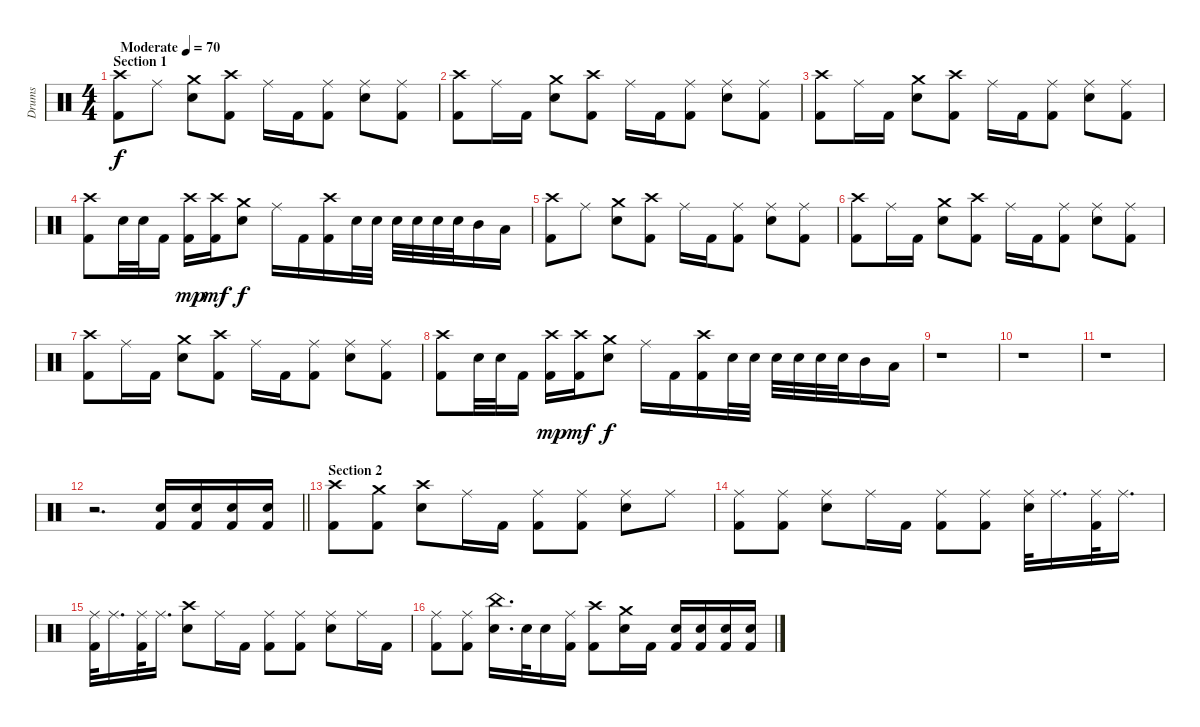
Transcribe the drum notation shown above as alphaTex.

\track ("Drums" "Drums") {instrument percussion}
\staff {score}
\articulation defaults
\ts (4 4)
\section ("" "Section 1")
\tempo (70 "Moderate")
\clef neutral
\ks c
("Crash high (hit)" "Kick (hit) 2").8{dy f} "Ride (middle)".8 ("Crash medium (hit)" "Electric Snare (hit)").8 ("Crash high (hit)" "Kick (hit) 2").8 "Ride (middle)".16 "Kick (hit) 2".16 ("Ride (middle)" "Kick (hit) 2").8 ("Ride (middle)" "Electric Snare (hit)").8 ("Ride (middle)" "Kick (hit) 2").8 |
("Crash high (hit)" "Kick (hit) 2").8 "Ride (middle)".16 "Kick (hit) 2".16 ("Crash medium (hit)" "Electric Snare (hit)").8 ("Crash high (hit)" "Kick (hit) 2").8 "Ride (middle)".16 "Kick (hit) 2".16 ("Ride (middle)" "Kick (hit) 2").8 ("Ride (middle)" "Electric Snare (hit)").8 ("Ride (middle)" "Kick (hit) 2").8 |
("Crash high (hit)" "Kick (hit) 2").8 "Ride (middle)".16 "Kick (hit) 2".16 ("Crash medium (hit)" "Electric Snare (hit)").8 ("Crash high (hit)" "Kick (hit) 2").8 "Ride (middle)".16 "Kick (hit) 2".16 ("Ride (middle)" "Kick (hit) 2").8 ("Ride (middle)" "Electric Snare (hit)").8 ("Ride (middle)" "Kick (hit) 2").8 |
("Crash high (hit)" "Kick (hit) 2").8 "Electric Snare (hit)".32 "Electric Snare (hit)".32 "Kick (hit) 2".16 ("Crash high (hit)" "Kick (hit) 2").16{dy mp} ("Crash high (hit)" "Kick (hit) 2").16{dy mf} ("Crash medium (hit)" "Electric Snare (hit)").8{dy f} "Ride (middle)".16 "Kick (hit) 2".16 ("Crash high (hit)" "Kick (hit) 2").16 "Electric Snare (hit)".32 "Electric Snare (hit)".32 "Electric Snare (hit)".32 "Electric Snare (hit)".32 "Electric Snare (hit)".32 "Electric Snare (hit)".32 "Mid Tom (hit)".16 "Low Tom (hit)".16 |
("Crash high (hit)" "Kick (hit) 2").8 "Ride (middle)".8 ("Crash medium (hit)" "Electric Snare (hit)").8 ("Crash high (hit)" "Kick (hit) 2").8 "Ride (middle)".16 "Kick (hit) 2".16 ("Ride (middle)" "Kick (hit) 2").8 ("Ride (middle)" "Electric Snare (hit)").8 ("Ride (middle)" "Kick (hit) 2").8 |
("Crash high (hit)" "Kick (hit) 2").8 "Ride (middle)".16 "Kick (hit) 2".16 ("Crash medium (hit)" "Electric Snare (hit)").8 ("Crash high (hit)" "Kick (hit) 2").8 "Ride (middle)".16 "Kick (hit) 2".16 ("Ride (middle)" "Kick (hit) 2").8 ("Ride (middle)" "Electric Snare (hit)").8 ("Ride (middle)" "Kick (hit) 2").8 |
("Crash high (hit)" "Kick (hit) 2").8 "Ride (middle)".16 "Kick (hit) 2".16 ("Crash medium (hit)" "Electric Snare (hit)").8 ("Crash high (hit)" "Kick (hit) 2").8 "Ride (middle)".16 "Kick (hit) 2".16 ("Ride (middle)" "Kick (hit) 2").8 ("Ride (middle)" "Electric Snare (hit)").8 ("Ride (middle)" "Kick (hit) 2").8 |
("Crash high (hit)" "Kick (hit) 2").8 "Electric Snare (hit)".32 "Electric Snare (hit)".32 "Kick (hit) 2".16 ("Crash high (hit)" "Kick (hit) 2").16{dy mp} ("Crash high (hit)" "Kick (hit) 2").16{dy mf} ("Crash medium (hit)" "Electric Snare (hit)").8{dy f} "Ride (middle)".16 "Kick (hit) 2".16 ("Crash high (hit)" "Kick (hit) 2").16 "Electric Snare (hit)".32 "Electric Snare (hit)".32 "Electric Snare (hit)".32 "Electric Snare (hit)".32 "Electric Snare (hit)".32 "Electric Snare (hit)".32 "Mid Tom (hit)".16 "Low Tom (hit)".16 |
r.1 |
r.1 |
r.1 |
\barLineRight lightlight
r.2{d} ("Electric Snare (hit)" "Kick (hit) 2").16 ("Electric Snare (hit)" "Kick (hit) 2").16 ("Electric Snare (hit)" "Kick (hit) 2").16 ("Electric Snare (hit)" "Kick (hit) 2").16 |
\section ("" "Section 2")
("Crash high (hit)" "Kick (hit) 2").8 ("Crash medium (hit)" "Kick (hit) 2").8 ("Crash high (hit)" "Electric Snare (hit)").8 "Ride (middle)".16 "Kick (hit) 2".16 ("Ride (middle)" "Kick (hit) 2").8 ("Ride (middle)" "Kick (hit) 2").8 ("Ride (middle)" "Electric Snare (hit)").8 "Ride (middle)".8 |
("Ride (middle)" "Kick (hit) 2").8 ("Ride (middle)" "Kick (hit) 2").8 ("Ride (middle)" "Electric Snare (hit)").8 "Ride (middle)".16 "Kick (hit) 2".16 ("Ride (middle)" "Kick (hit) 2").8 ("Ride (middle)" "Kick (hit) 2").8 ("Ride (middle)" "Electric Snare (hit)").32 "Ride (middle)".16{d} ("Ride (middle)" "Kick (hit) 2").32 "Ride (middle)".16{d} |
("Ride (middle)" "Kick (hit) 2").32 "Ride (middle)".16{d} ("Ride (middle)" "Kick (hit) 2").32 "Ride (middle)".16{d} ("Crash high (hit)" "Electric Snare (hit)").8 "Ride (middle)".16 "Kick (hit) 2".16 ("Ride (middle)" "Kick (hit) 2").8 ("Ride (middle)" "Kick (hit) 2").8 ("Ride (middle)" "Electric Snare (hit)").8 "Ride (middle)".16 "Kick (hit) 2".16 |
("Ride (middle)" "Kick (hit) 2").8 ("Ride (middle)" "Kick (hit) 2").8 ("China (hit)" "Electric Snare (hit)").16{d} "Electric Snare (hit)".32 "Electric Snare (hit)".16 ("Ride (middle)" "Kick (hit) 2").16 ("Crash high (hit)" "Kick (hit) 2").8 ("Crash medium (hit)" "Electric Snare (hit)").16 "Kick (hit) 2".16 ("Electric Snare (hit)" "Kick (hit) 2").16 ("Electric Snare (hit)" "Kick (hit) 2").16 ("Electric Snare (hit)" "Kick (hit) 2").16 ("Electric Snare (hit)" "Kick (hit) 2").16
